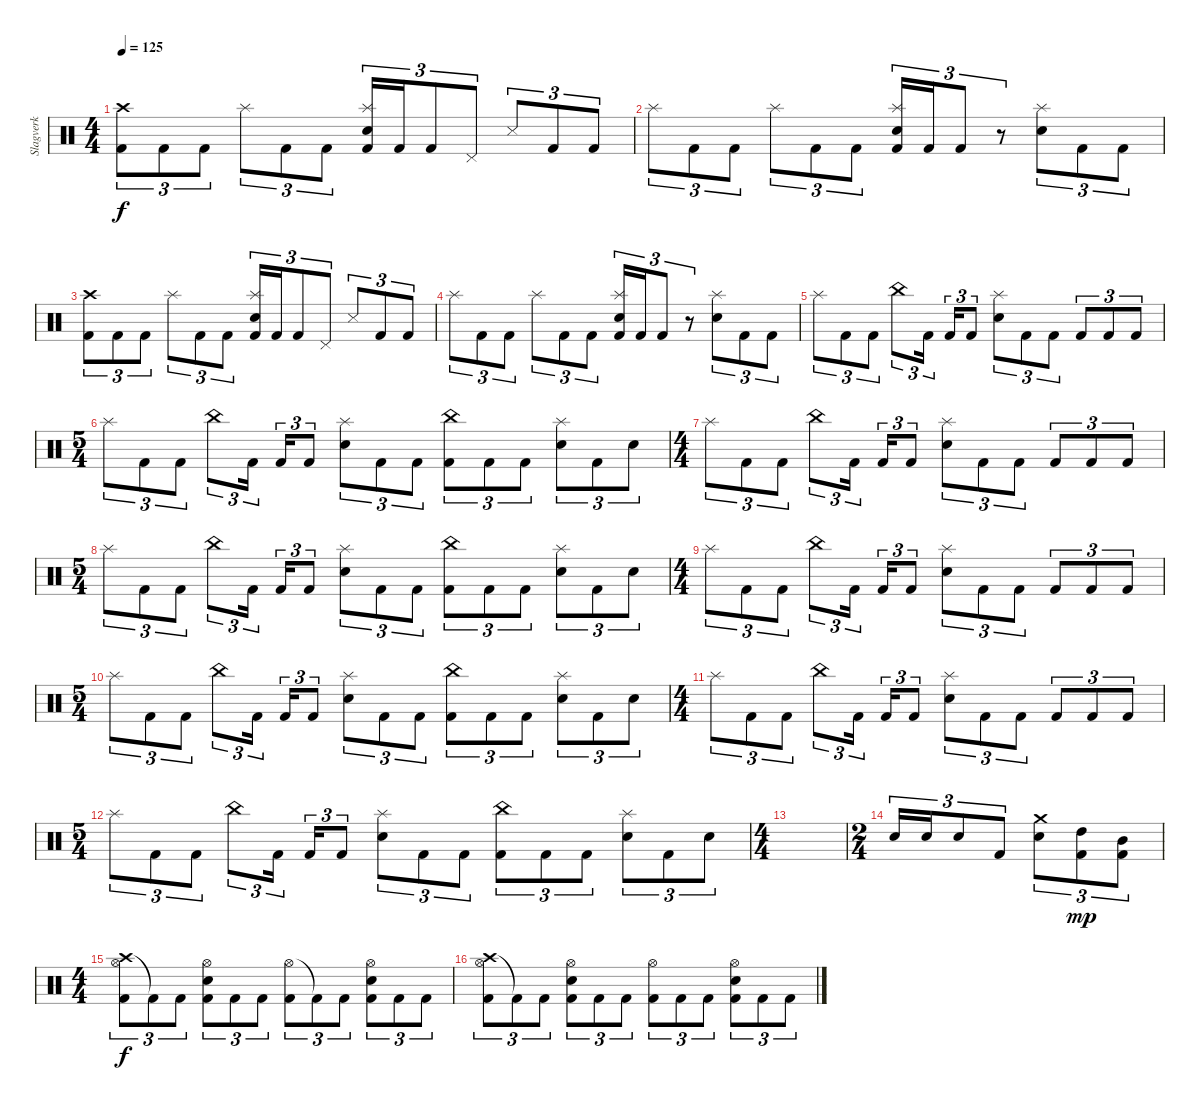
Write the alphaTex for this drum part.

\track ("Slagverk" "Slagverk") {instrument percussion}
\staff {score}
\articulation defaults
\ts (4 4)
\tempo 125
\clef neutral
\ks c
("Crash high (hit)" "Kick (hit) 2").8{tu (3 2) dy f} "Kick (hit) 2".8{tu (3 2)} "Kick (hit) 2".8{tu (3 2)} "Splash (hit)".8{tu (3 2)} "Kick (hit) 2".8{tu (3 2)} "Kick (hit) 2".8{tu (3 2)} ("Electric Snare (hit)" "Splash (hit)" "Kick (hit) 2").16{tu (3 2)} "Kick (hit) 2".16{tu (3 2)} "Kick (hit) 2".8{tu (3 2)} "Pedal Hi-Hat (hit)".8{tu (3 2)} "Snare (side stick) 3".8{tu (3 2)} "Kick (hit) 2".8{tu (3 2)} "Kick (hit) 2".8{tu (3 2)} |
"Splash (hit)".8{tu (3 2)} "Kick (hit) 2".8{tu (3 2)} "Kick (hit) 2".8{tu (3 2)} "Splash (hit)".8{tu (3 2)} "Kick (hit) 2".8{tu (3 2)} "Kick (hit) 2".8{tu (3 2)} ("Electric Snare (hit)" "Splash (hit)" "Kick (hit) 2").16{tu (3 2)} "Kick (hit) 2".16{tu (3 2)} "Kick (hit) 2".8{tu (3 2)} r.8{tu (3 2)} ("Splash (hit)" "Electric Snare (hit)").8{tu (3 2)} "Kick (hit) 2".8{tu (3 2)} "Kick (hit) 2".8{tu (3 2)} |
("Crash high (hit)" "Kick (hit) 2").8{tu (3 2)} "Kick (hit) 2".8{tu (3 2)} "Kick (hit) 2".8{tu (3 2)} "Splash (hit)".8{tu (3 2)} "Kick (hit) 2".8{tu (3 2)} "Kick (hit) 2".8{tu (3 2)} ("Electric Snare (hit)" "Splash (hit)" "Kick (hit) 2").16{tu (3 2)} "Kick (hit) 2".16{tu (3 2)} "Kick (hit) 2".8{tu (3 2)} "Pedal Hi-Hat (hit)".8{tu (3 2)} "Snare (side stick) 3".8{tu (3 2)} "Kick (hit) 2".8{tu (3 2)} "Kick (hit) 2".8{tu (3 2)} |
"Splash (hit)".8{tu (3 2)} "Kick (hit) 2".8{tu (3 2)} "Kick (hit) 2".8{tu (3 2)} "Splash (hit)".8{tu (3 2)} "Kick (hit) 2".8{tu (3 2)} "Kick (hit) 2".8{tu (3 2)} ("Electric Snare (hit)" "Splash (hit)" "Kick (hit) 2").16{tu (3 2)} "Kick (hit) 2".16{tu (3 2)} "Kick (hit) 2".8{tu (3 2)} r.8{tu (3 2)} ("Splash (hit)" "Electric Snare (hit)").8{tu (3 2)} "Kick (hit) 2".8{tu (3 2)} "Kick (hit) 2".8{tu (3 2)} |
"Splash (hit)".8{tu (3 2)} "Kick (hit) 2".8{tu (3 2)} "Kick (hit) 2".8{tu (3 2)} "China (hit)".8{tu (3 2)} "Kick (hit) 2".16{tu (3 2) beam splitsecondary} "Kick (hit) 2".16{tu (3 2)} "Kick (hit) 2".8{tu (3 2)} ("Splash (hit)" "Electric Snare (hit)").8{tu (3 2)} "Kick (hit) 2".8{tu (3 2)} "Kick (hit) 2".8{tu (3 2)} "Kick (hit) 2".8{tu (3 2)} "Kick (hit) 2".8{tu (3 2)} "Kick (hit) 2".8{tu (3 2)} |
\ts (5 4)
"Splash (hit)".8{tu (3 2)} "Kick (hit) 2".8{tu (3 2)} "Kick (hit) 2".8{tu (3 2)} "China (hit)".8{tu (3 2)} "Kick (hit) 2".16{tu (3 2) beam splitsecondary} "Kick (hit) 2".16{tu (3 2)} "Kick (hit) 2".8{tu (3 2)} ("Splash (hit)" "Electric Snare (hit)").8{tu (3 2)} "Kick (hit) 2".8{tu (3 2)} "Kick (hit) 2".8{tu (3 2)} ("China (hit)" "Kick (hit) 2").8{tu (3 2)} "Kick (hit) 2".8{tu (3 2)} "Kick (hit) 2".8{tu (3 2)} ("Electric Snare (hit)" "Splash (hit)").8{tu (3 2)} "Kick (hit) 2".8{tu (3 2)} "Electric Snare (hit)".8{tu (3 2)} |
\ts (4 4)
"Splash (hit)".8{tu (3 2)} "Kick (hit) 2".8{tu (3 2)} "Kick (hit) 2".8{tu (3 2)} "China (hit)".8{tu (3 2)} "Kick (hit) 2".16{tu (3 2) beam splitsecondary} "Kick (hit) 2".16{tu (3 2)} "Kick (hit) 2".8{tu (3 2)} ("Splash (hit)" "Electric Snare (hit)").8{tu (3 2)} "Kick (hit) 2".8{tu (3 2)} "Kick (hit) 2".8{tu (3 2)} "Kick (hit) 2".8{tu (3 2)} "Kick (hit) 2".8{tu (3 2)} "Kick (hit) 2".8{tu (3 2)} |
\ts (5 4)
"Splash (hit)".8{tu (3 2)} "Kick (hit) 2".8{tu (3 2)} "Kick (hit) 2".8{tu (3 2)} "China (hit)".8{tu (3 2)} "Kick (hit) 2".16{tu (3 2) beam splitsecondary} "Kick (hit) 2".16{tu (3 2)} "Kick (hit) 2".8{tu (3 2)} ("Splash (hit)" "Electric Snare (hit)").8{tu (3 2)} "Kick (hit) 2".8{tu (3 2)} "Kick (hit) 2".8{tu (3 2)} ("China (hit)" "Kick (hit) 2").8{tu (3 2)} "Kick (hit) 2".8{tu (3 2)} "Kick (hit) 2".8{tu (3 2)} ("Electric Snare (hit)" "Splash (hit)").8{tu (3 2)} "Kick (hit) 2".8{tu (3 2)} "Electric Snare (hit)".8{tu (3 2)} |
\ts (4 4)
"Splash (hit)".8{tu (3 2)} "Kick (hit) 2".8{tu (3 2)} "Kick (hit) 2".8{tu (3 2)} "China (hit)".8{tu (3 2)} "Kick (hit) 2".16{tu (3 2) beam splitsecondary} "Kick (hit) 2".16{tu (3 2)} "Kick (hit) 2".8{tu (3 2)} ("Splash (hit)" "Electric Snare (hit)").8{tu (3 2)} "Kick (hit) 2".8{tu (3 2)} "Kick (hit) 2".8{tu (3 2)} "Kick (hit) 2".8{tu (3 2)} "Kick (hit) 2".8{tu (3 2)} "Kick (hit) 2".8{tu (3 2)} |
\ts (5 4)
"Splash (hit)".8{tu (3 2)} "Kick (hit) 2".8{tu (3 2)} "Kick (hit) 2".8{tu (3 2)} "China (hit)".8{tu (3 2)} "Kick (hit) 2".16{tu (3 2) beam splitsecondary} "Kick (hit) 2".16{tu (3 2)} "Kick (hit) 2".8{tu (3 2)} ("Splash (hit)" "Electric Snare (hit)").8{tu (3 2)} "Kick (hit) 2".8{tu (3 2)} "Kick (hit) 2".8{tu (3 2)} ("China (hit)" "Kick (hit) 2").8{tu (3 2)} "Kick (hit) 2".8{tu (3 2)} "Kick (hit) 2".8{tu (3 2)} ("Electric Snare (hit)" "Splash (hit)").8{tu (3 2)} "Kick (hit) 2".8{tu (3 2)} "Electric Snare (hit)".8{tu (3 2)} |
\ts (4 4)
"Splash (hit)".8{tu (3 2)} "Kick (hit) 2".8{tu (3 2)} "Kick (hit) 2".8{tu (3 2)} "China (hit)".8{tu (3 2)} "Kick (hit) 2".16{tu (3 2) beam splitsecondary} "Kick (hit) 2".16{tu (3 2)} "Kick (hit) 2".8{tu (3 2)} ("Splash (hit)" "Electric Snare (hit)").8{tu (3 2)} "Kick (hit) 2".8{tu (3 2)} "Kick (hit) 2".8{tu (3 2)} "Kick (hit) 2".8{tu (3 2)} "Kick (hit) 2".8{tu (3 2)} "Kick (hit) 2".8{tu (3 2)} |
\ts (5 4)
"Splash (hit)".8{tu (3 2)} "Kick (hit) 2".8{tu (3 2)} "Kick (hit) 2".8{tu (3 2)} "China (hit)".8{tu (3 2)} "Kick (hit) 2".16{tu (3 2) beam splitsecondary} "Kick (hit) 2".16{tu (3 2)} "Kick (hit) 2".8{tu (3 2)} ("Splash (hit)" "Electric Snare (hit)").8{tu (3 2)} "Kick (hit) 2".8{tu (3 2)} "Kick (hit) 2".8{tu (3 2)} ("China (hit)" "Kick (hit) 2").8{tu (3 2)} "Kick (hit) 2".8{tu (3 2)} "Kick (hit) 2".8{tu (3 2)} ("Electric Snare (hit)" "Splash (hit)").8{tu (3 2)} "Kick (hit) 2".8{tu (3 2)} "Electric Snare (hit)".8{tu (3 2)} |
\ts (4 4)
|
\ts (2 4)
"Electric Snare (hit)".16{tu (3 2)} "Electric Snare (hit)".16{tu (3 2)} "Electric Snare (hit)".8{tu (3 2)} "Kick (hit) 2".8{tu (3 2)} ("Crash medium (hit)" "Electric Snare (hit)").8{tu (3 2)} ("High Tom (hit)" "Kick (hit) 2").8{tu (3 2) dy mp} ("Mid Tom (hit)" "Kick (hit) 2").8{tu (3 2)} |
\ts (4 4)
("Crash high (hit)" "Hi-Hat (open)" "Kick (hit) 2").8{tu (3 2) dy f} "Kick (hit) 2"{t}.8{tu (3 2)} "Kick (hit) 2".8{tu (3 2)} ("Hi-Hat (open)" "Electric Snare (hit)" "Kick (hit) 2").8{tu (3 2)} "Kick (hit) 2".8{tu (3 2)} "Kick (hit) 2".8{tu (3 2)} ("Hi-Hat (open)" "Kick (hit) 2").8{tu (3 2)} "Kick (hit) 2"{t}.8{tu (3 2)} "Kick (hit) 2".8{tu (3 2)} ("Hi-Hat (open)" "Electric Snare (hit)" "Kick (hit) 2").8{tu (3 2)} "Kick (hit) 2".8{tu (3 2)} "Kick (hit) 2".8{tu (3 2)} |
("Crash high (hit)" "Hi-Hat (open)" "Kick (hit) 2").8{tu (3 2)} "Kick (hit) 2"{t}.8{tu (3 2)} "Kick (hit) 2".8{tu (3 2)} ("Hi-Hat (open)" "Electric Snare (hit)" "Kick (hit) 2").8{tu (3 2)} "Kick (hit) 2".8{tu (3 2)} "Kick (hit) 2".8{tu (3 2)} ("Hi-Hat (open)" "Kick (hit) 2").8{tu (3 2)} "Kick (hit) 2".8{tu (3 2)} "Kick (hit) 2".8{tu (3 2)} ("Hi-Hat (open)" "Electric Snare (hit)" "Kick (hit) 2").8{tu (3 2)} "Kick (hit) 2".8{tu (3 2)} "Kick (hit) 2".8{tu (3 2)}
